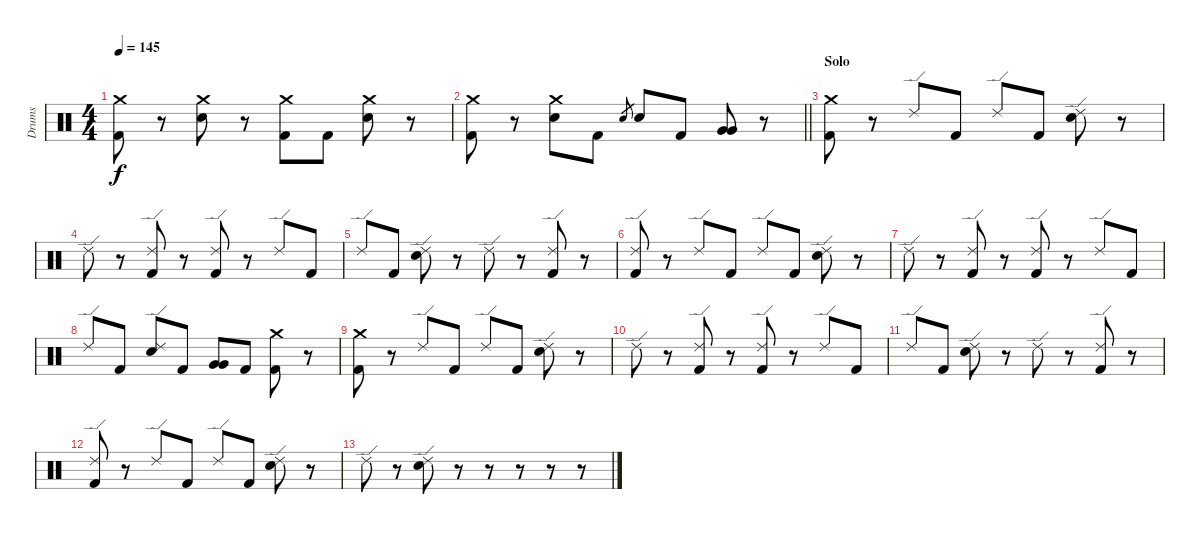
\track ("Drums" "Drums") {instrument percussion}
\staff {score}
\articulation defaults
\ts (4 4)
\tempo 145
\clef neutral
\ks c
("Crash medium (hit)" "Kick (hit) 2").8{dy f} r.8 ("Crash medium (hit)" "Electric Snare (hit)").8 r.8 ("Crash medium (hit)" "Kick (hit) 2").8 "Kick (hit) 2".8 ("Crash medium (hit)" "Electric Snare (hit)").8 r.8 |
\barLineRight lightlight
("Crash medium (hit)" "Kick (hit) 2").8 r.8 ("Crash medium (hit)" "Electric Snare (hit)").8 "Kick (hit) 2".8 "Electric Snare (hit)".8{gr} "Electric Snare (hit)".8 "Kick (hit) 2".8 ("Very Low Tom (hit)" "Very Low Tom (hit)").8 r.8 |
\section ("" "Solo")
("Crash medium (hit)" "Kick (hit) 2").8 r.8 "Ride (edge) 2".8 "Kick (hit) 2".8 "Ride (edge) 2".8 "Kick (hit) 2".8 ("Ride (edge) 2" "Electric Snare (hit)").8 r.8 |
"Ride (edge) 2".8 r.8 ("Ride (edge) 2" "Kick (hit) 2").8 r.8 ("Ride (edge) 2" "Kick (hit) 2").8 r.8 "Ride (edge) 2".8 "Kick (hit) 2".8 |
"Ride (edge) 2".8 "Kick (hit) 2".8 ("Ride (edge) 2" "Electric Snare (hit)").8 r.8 "Ride (edge) 2".8 r.8 ("Ride (edge) 2" "Kick (hit) 2").8 r.8 |
("Ride (edge) 2" "Kick (hit) 2").8 r.8 "Ride (edge) 2".8 "Kick (hit) 2".8 "Ride (edge) 2".8 "Kick (hit) 2".8 ("Ride (edge) 2" "Electric Snare (hit)").8 r.8 |
"Ride (edge) 2".8 r.8 ("Ride (edge) 2" "Kick (hit) 2").8 r.8 ("Ride (edge) 2" "Kick (hit) 2").8 r.8 "Ride (edge) 2".8 "Kick (hit) 2".8 |
"Ride (edge) 2".8 "Kick (hit) 2".8 ("Ride (edge) 2" "Electric Snare (hit)").8 "Kick (hit) 2".8 ("Very Low Tom (hit)" "Very Low Tom (hit)").8 "Kick (hit) 2".8 ("Crash medium (hit)" "Kick (hit) 2").8 r.8 |
("Crash medium (hit)" "Kick (hit) 2").8 r.8 "Ride (edge) 2".8 "Kick (hit) 2".8 "Ride (edge) 2".8 "Kick (hit) 2".8 ("Ride (edge) 2" "Electric Snare (hit)").8 r.8 |
"Ride (edge) 2".8 r.8 ("Ride (edge) 2" "Kick (hit) 2").8 r.8 ("Ride (edge) 2" "Kick (hit) 2").8 r.8 "Ride (edge) 2".8 "Kick (hit) 2".8 |
"Ride (edge) 2".8 "Kick (hit) 2".8 ("Ride (edge) 2" "Electric Snare (hit)").8 r.8 "Ride (edge) 2".8 r.8 ("Ride (edge) 2" "Kick (hit) 2").8 r.8 |
("Ride (edge) 2" "Kick (hit) 2").8 r.8 "Ride (edge) 2".8 "Kick (hit) 2".8 "Ride (edge) 2".8 "Kick (hit) 2".8 ("Ride (edge) 2" "Electric Snare (hit)").8 r.8 |
"Ride (edge) 2".8 r.8 ("Ride (edge) 2" "Electric Snare (hit)").8 r.8 r.8 r.8 r.8 r.8
